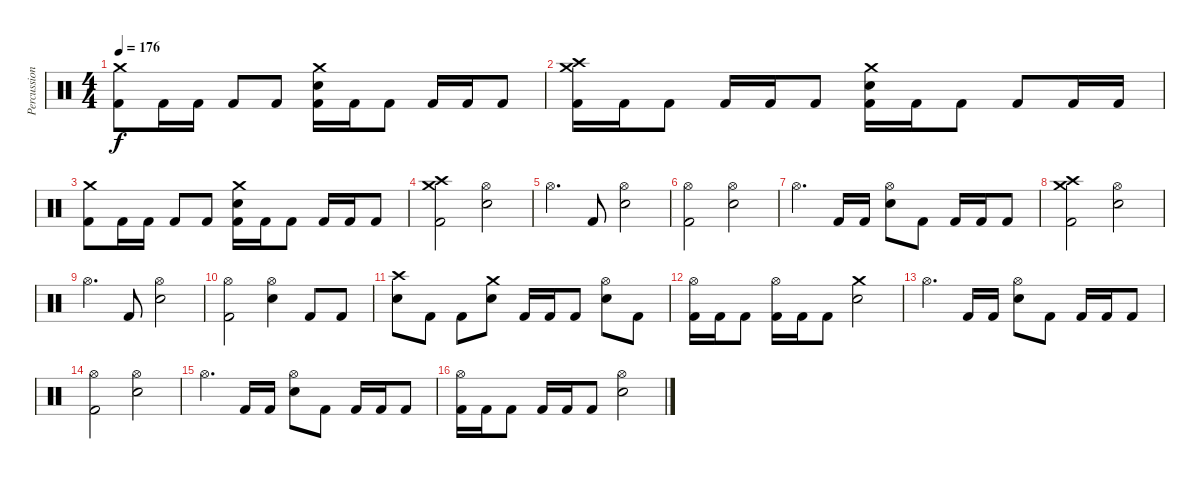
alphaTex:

\track ("Percussion" "Percussion") {instrument percussion}
\staff {score}
\articulation defaults
\ts (4 4)
\tempo 176
\clef neutral
\ks c
("Crash medium (hit)" "Kick (hit) 2").8{dy f} "Kick (hit) 2".16 "Kick (hit) 2".16 "Kick (hit) 2".8 "Kick (hit) 2".8 ("Crash medium (hit)" "Snare (hit) 2" "Kick (hit) 2").16 "Kick (hit) 2".16 "Kick (hit) 2".8 "Kick (hit) 2".16 "Kick (hit) 2".16 "Kick (hit) 2".8 |
("Crash high (hit)" "Crash medium (hit)" "Kick (hit) 2").16 "Kick (hit) 2".16 "Kick (hit) 2".8 "Kick (hit) 2".16 "Kick (hit) 2".16 "Kick (hit) 2".8 ("Crash medium (hit)" "Snare (hit) 2" "Kick (hit) 2").16 "Kick (hit) 2".16 "Kick (hit) 2".8 "Kick (hit) 2".8 "Kick (hit) 2".16 "Kick (hit) 2".16 |
("Crash medium (hit)" "Kick (hit) 2").8 "Kick (hit) 2".16 "Kick (hit) 2".16 "Kick (hit) 2".8 "Kick (hit) 2".8 ("Crash medium (hit)" "Snare (hit) 2" "Kick (hit) 2").16 "Kick (hit) 2".16 "Kick (hit) 2".8 "Kick (hit) 2".16 "Kick (hit) 2".16 "Kick (hit) 2".8 |
("Crash high (hit)" "Crash medium (hit)" "Kick (hit) 2").2 ("Hi-Hat (open)" "Snare (hit) 2").2 |
"Hi-Hat (open)".4{d} "Kick (hit) 2".8 ("Hi-Hat (open)" "Snare (hit) 2").2 |
("Hi-Hat (open)" "Kick (hit) 2").2 ("Hi-Hat (open)" "Snare (hit) 2").2 |
"Hi-Hat (open)".4{d} "Kick (hit) 2".16 "Kick (hit) 2".16 ("Hi-Hat (open)" "Snare (hit) 2").8 "Kick (hit) 2".8 "Kick (hit) 2".16 "Kick (hit) 2".16 "Kick (hit) 2".8 |
("Crash high (hit)" "Crash medium (hit)" "Kick (hit) 2").2 ("Hi-Hat (open)" "Snare (hit) 2").2 |
"Hi-Hat (open)".4{d} "Kick (hit) 2".8 ("Hi-Hat (open)" "Snare (hit) 2").2 |
("Hi-Hat (open)" "Kick (hit) 2").2 ("Hi-Hat (open)" "Snare (hit) 2").4 "Kick (hit) 2".8 "Kick (hit) 2".8 |
("Crash high (hit)" "Snare (hit) 2").8 "Kick (hit) 2".8 "Kick (hit) 2".8 ("Crash medium (hit)" "Snare (hit) 2").8 "Kick (hit) 2".16 "Kick (hit) 2".16 "Kick (hit) 2".8 ("Hi-Hat (open)" "Snare (hit) 2").8 "Kick (hit) 2".8 |
("Hi-Hat (open)" "Kick (hit) 2").16 "Kick (hit) 2".16 "Kick (hit) 2".8 ("Hi-Hat (open)" "Kick (hit) 2").16 "Kick (hit) 2".16 "Kick (hit) 2".8 ("Crash medium (hit)" "Snare (hit) 2").2 |
"Hi-Hat (open)".4{d} "Kick (hit) 2".16 "Kick (hit) 2".16 ("Hi-Hat (open)" "Snare (hit) 2").8 "Kick (hit) 2".8 "Kick (hit) 2".16 "Kick (hit) 2".16 "Kick (hit) 2".8 |
("Hi-Hat (open)" "Kick (hit) 2").2 ("Hi-Hat (open)" "Snare (hit) 2").2 |
"Hi-Hat (open)".4{d} "Kick (hit) 2".16 "Kick (hit) 2".16 ("Hi-Hat (open)" "Snare (hit) 2").8 "Kick (hit) 2".8 "Kick (hit) 2".16 "Kick (hit) 2".16 "Kick (hit) 2".8 |
("Hi-Hat (open)" "Kick (hit) 2").16 "Kick (hit) 2".16 "Kick (hit) 2".8 "Kick (hit) 2".16 "Kick (hit) 2".16 "Kick (hit) 2".8 ("Hi-Hat (open)" "Snare (hit) 2").2
